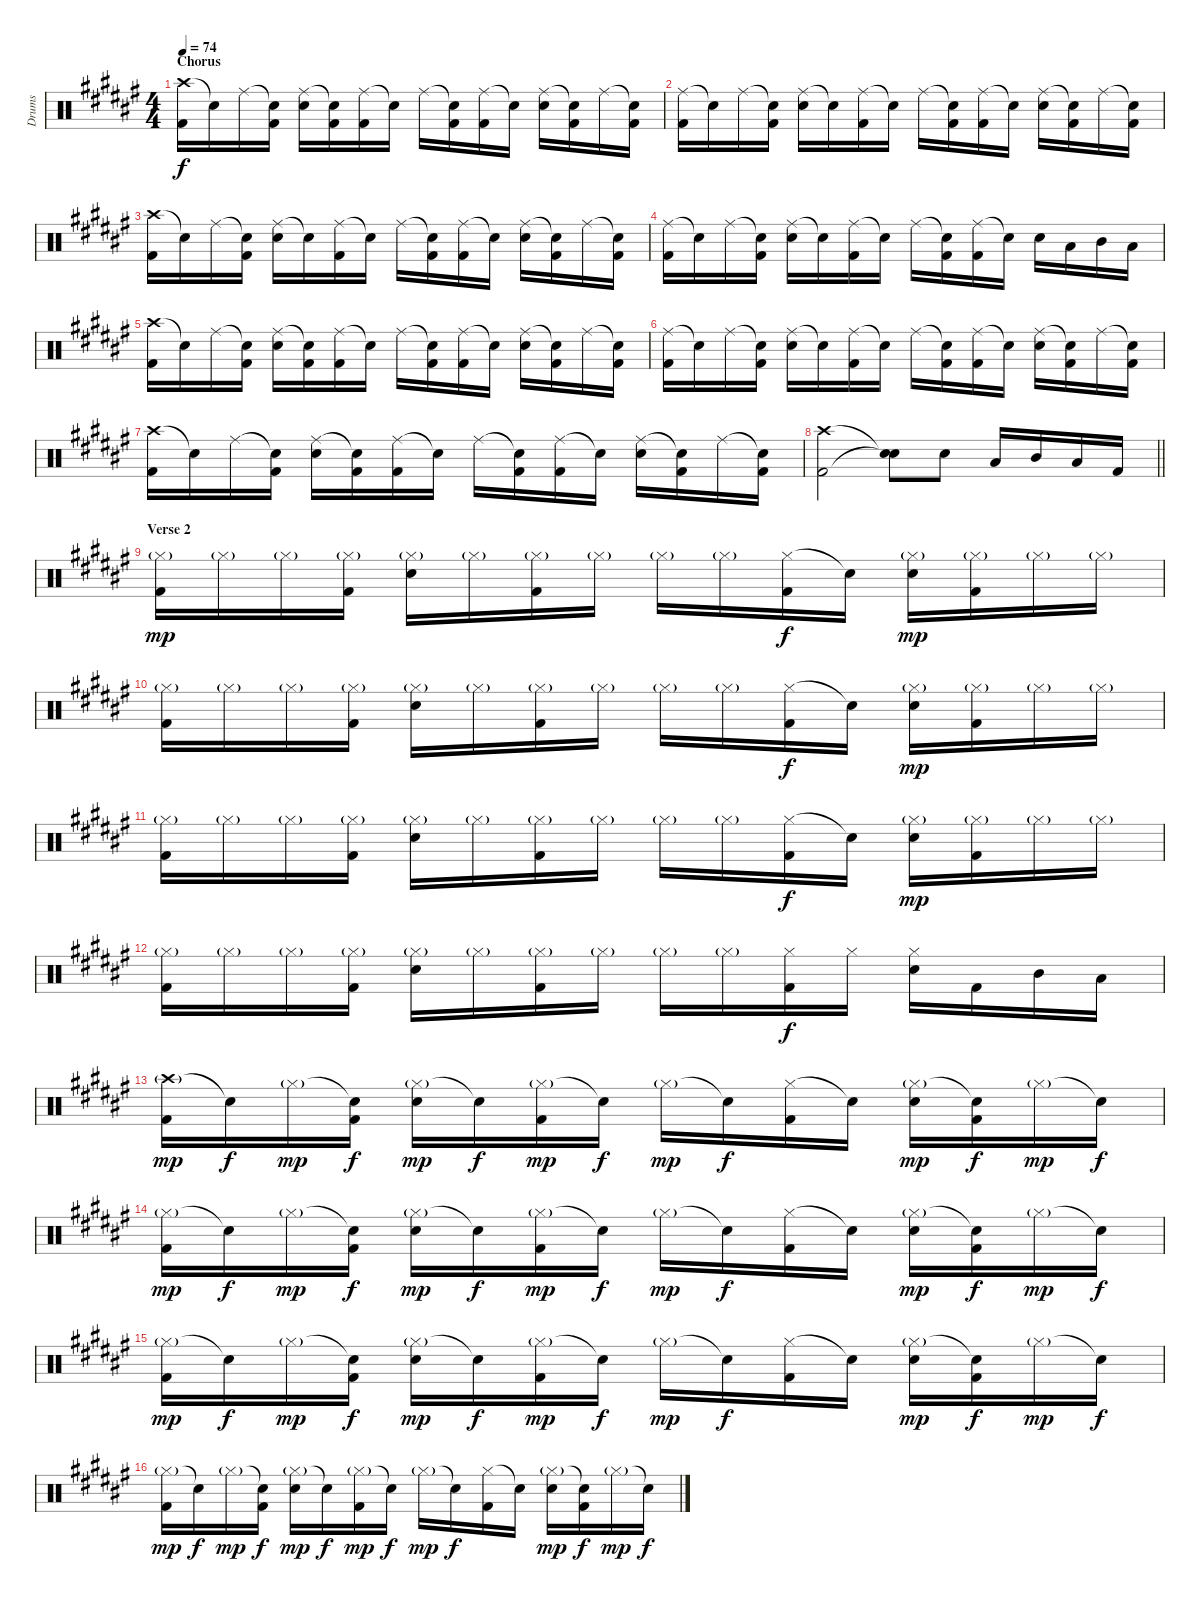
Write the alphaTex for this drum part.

\track ("Drums" "Drums") {instrument percussion}
\staff {score}
\articulation defaults
\ts (4 4)
\section ("" "Chorus")
\tempo 74
\clef neutral
\ks f#
("Crash high (hit)" "Kick (hit) 2").16{dy f} "Snare (hit)"{t}.16 "Ride (middle)".16 ("Snare (hit)"{t} "Kick (hit) 2").16 ("Ride (middle)" "Electric Snare (hit)").16 ("Snare (hit)"{t} "Kick (hit) 2").16 ("Ride (middle)" "Kick (hit) 2").16 "Snare (hit)"{t}.16 "Ride (middle)".16 ("Snare (hit)"{t} "Kick (hit) 2").16 ("Ride (middle)" "Kick (hit) 2").16 "Snare (hit)"{t}.16 ("Ride (middle)" "Electric Snare (hit)").16 ("Snare (hit)"{t} "Kick (hit) 2").16 "Ride (middle)".16 ("Snare (hit)"{t} "Kick (hit) 2").16 |
("Ride (middle)" "Kick (hit) 2").16 "Snare (hit)"{t}.16 "Ride (middle)".16 ("Snare (hit)"{t} "Kick (hit) 2").16 ("Ride (middle)" "Electric Snare (hit)").16 "Snare (hit)"{t}.16 ("Ride (middle)" "Kick (hit) 2").16 "Snare (hit)"{t}.16 "Ride (middle)".16 ("Snare (hit)"{t} "Kick (hit) 2").16 ("Ride (middle)" "Kick (hit) 2").16 "Snare (hit)"{t}.16 ("Ride (middle)" "Electric Snare (hit)").16 ("Snare (hit)"{t} "Kick (hit) 2").16 "Ride (middle)".16 ("Snare (hit)"{t} "Kick (hit) 2").16 |
("Crash high (hit)" "Kick (hit) 2").16 "Snare (hit)"{t}.16 "Ride (middle)".16 ("Snare (hit)"{t} "Kick (hit) 2").16 ("Ride (middle)" "Electric Snare (hit)").16 "Snare (hit)"{t}.16 ("Ride (middle)" "Kick (hit) 2").16 "Snare (hit)"{t}.16 "Ride (middle)".16 ("Snare (hit)"{t} "Kick (hit) 2").16 ("Ride (middle)" "Kick (hit) 2").16 "Snare (hit)"{t}.16 ("Ride (middle)" "Electric Snare (hit)").16 ("Snare (hit)"{t} "Kick (hit) 2").16 "Ride (middle)".16 ("Snare (hit)"{t} "Kick (hit) 2").16 |
("Ride (middle)" "Kick (hit) 2").16 "Snare (hit)"{t}.16 "Ride (middle)".16 ("Snare (hit)"{t} "Kick (hit) 2").16 ("Ride (middle)" "Electric Snare (hit)").16 "Snare (hit)"{t}.16 ("Ride (middle)" "Kick (hit) 2").16 "Snare (hit)"{t}.16 "Ride (middle)".16 ("Snare (hit)"{t} "Kick (hit) 2").16 ("Ride (middle)" "Kick (hit) 2").16 "Snare (hit)"{t}.16 "Electric Snare (hit)".16 "Low Tom (hit)".16 "Mid Tom (hit)".16 "Low Floor Tom (hit)".16 |
("Crash high (hit)" "Kick (hit) 2").16 "Snare (hit)"{t}.16 "Ride (middle)".16 ("Snare (hit)"{t} "Kick (hit) 2").16 ("Ride (middle)" "Electric Snare (hit)").16 ("Snare (hit)"{t} "Kick (hit) 2").16 ("Ride (middle)" "Kick (hit) 2").16 "Snare (hit)"{t}.16 "Ride (middle)".16 ("Snare (hit)"{t} "Kick (hit) 2").16 ("Ride (middle)" "Kick (hit) 2").16 "Snare (hit)"{t}.16 ("Ride (middle)" "Electric Snare (hit)").16 ("Snare (hit)"{t} "Kick (hit) 2").16 "Ride (middle)".16 ("Snare (hit)"{t} "Kick (hit) 2").16 |
("Ride (middle)" "Kick (hit) 2").16 "Snare (hit)"{t}.16 "Ride (middle)".16 ("Snare (hit)"{t} "Kick (hit) 2").16 ("Ride (middle)" "Electric Snare (hit)").16 "Snare (hit)"{t}.16 ("Ride (middle)" "Kick (hit) 2").16 "Snare (hit)"{t}.16 "Ride (middle)".16 ("Snare (hit)"{t} "Kick (hit) 2").16 ("Ride (middle)" "Kick (hit) 2").16 "Snare (hit)"{t}.16 ("Ride (middle)" "Electric Snare (hit)").16 ("Snare (hit)"{t} "Kick (hit) 2").16 "Ride (middle)".16 ("Snare (hit)"{t} "Kick (hit) 2").16 |
("Crash high (hit)" "Kick (hit) 2").16 "Snare (hit)"{t}.16 "Ride (middle)".16 ("Snare (hit)"{t} "Kick (hit) 2").16 ("Ride (middle)" "Electric Snare (hit)").16 ("Snare (hit)"{t} "Kick (hit) 2").16 ("Ride (middle)" "Kick (hit) 2").16 "Snare (hit)"{t}.16 "Ride (middle)".16 ("Snare (hit)"{t} "Kick (hit) 2").16 ("Ride (middle)" "Kick (hit) 2").16 "Snare (hit)"{t}.16 ("Ride (middle)" "Electric Snare (hit)").16 ("Snare (hit)"{t} "Kick (hit) 2").16 "Ride (middle)".16 ("Snare (hit)"{t} "Kick (hit) 2").16 |
\barLineRight lightlight
("Crash high (hit)" "Kick (hit) 2").2 ("Snare (hit)"{t} "Snare (hit)"{t}).8 "Electric Snare (hit)".8 "Low Tom (hit)".16 "Mid Tom (hit)".16 "Low Floor Tom (hit)".16 "Kick (hit) 2".16 |
\section ("" "Verse 2")
("Hi-Hat (closed)"{g} "Kick (hit) 2").16{dy mp} "Hi-Hat (closed)"{g}.16 "Hi-Hat (closed)"{g}.16 ("Hi-Hat (closed)"{g} "Kick (hit) 2").16 ("Hi-Hat (closed)"{g} "Electric Snare (hit)").16 "Hi-Hat (closed)"{g}.16 ("Hi-Hat (closed)"{g} "Kick (hit) 2").16 "Hi-Hat (closed)"{g}.16 "Hi-Hat (closed)"{g}.16 "Hi-Hat (closed)"{g}.16 ("Hi-Hat (closed)" "Kick (hit) 2").16{dy f} "Snare (hit)"{t}.16 ("Hi-Hat (closed)"{g} "Electric Snare (hit)").16{dy mp} ("Hi-Hat (closed)"{g} "Kick (hit) 2").16 "Hi-Hat (closed)"{g}.16 "Hi-Hat (closed)"{g}.16 |
("Hi-Hat (closed)"{g} "Kick (hit) 2").16 "Hi-Hat (closed)"{g}.16 "Hi-Hat (closed)"{g}.16 ("Hi-Hat (closed)"{g} "Kick (hit) 2").16 ("Hi-Hat (closed)"{g} "Electric Snare (hit)").16 "Hi-Hat (closed)"{g}.16 ("Hi-Hat (closed)"{g} "Kick (hit) 2").16 "Hi-Hat (closed)"{g}.16 "Hi-Hat (closed)"{g}.16 "Hi-Hat (closed)"{g}.16 ("Hi-Hat (closed)" "Kick (hit) 2").16{dy f} "Snare (hit)"{t}.16 ("Hi-Hat (closed)"{g} "Electric Snare (hit)").16{dy mp} ("Hi-Hat (closed)"{g} "Kick (hit) 2").16 "Hi-Hat (closed)"{g}.16 "Hi-Hat (closed)"{g}.16 |
("Hi-Hat (closed)"{g} "Kick (hit) 2").16 "Hi-Hat (closed)"{g}.16 "Hi-Hat (closed)"{g}.16 ("Hi-Hat (closed)"{g} "Kick (hit) 2").16 ("Hi-Hat (closed)"{g} "Electric Snare (hit)").16 "Hi-Hat (closed)"{g}.16 ("Hi-Hat (closed)"{g} "Kick (hit) 2").16 "Hi-Hat (closed)"{g}.16 "Hi-Hat (closed)"{g}.16 "Hi-Hat (closed)"{g}.16 ("Hi-Hat (closed)" "Kick (hit) 2").16{dy f} "Snare (hit)"{t}.16 ("Hi-Hat (closed)"{g} "Electric Snare (hit)").16{dy mp} ("Hi-Hat (closed)"{g} "Kick (hit) 2").16 "Hi-Hat (closed)"{g}.16 "Hi-Hat (closed)"{g}.16 |
("Hi-Hat (closed)"{g} "Kick (hit) 2").16 "Hi-Hat (closed)"{g}.16 "Hi-Hat (closed)"{g}.16 ("Hi-Hat (closed)"{g} "Kick (hit) 2").16 ("Hi-Hat (closed)"{g} "Electric Snare (hit)").16 "Hi-Hat (closed)"{g}.16 ("Hi-Hat (closed)"{g} "Kick (hit) 2").16 "Hi-Hat (closed)"{g}.16 "Hi-Hat (closed)"{g}.16 "Hi-Hat (closed)"{g}.16 ("Hi-Hat (closed)" "Kick (hit) 2").16{dy f} "Hi-Hat (closed)".16 ("Hi-Hat (closed)" "Electric Snare (hit)").16 "Kick (hit) 2".16 "Mid Tom (hit)".16 "Low Floor Tom (hit)".16 |
("Crash high (hit)"{g} "Kick (hit) 2").16{dy mp} "Snare (hit)"{t}.16{dy f} "Hi-Hat (closed)"{g}.16{dy mp} ("Snare (hit)"{t} "Kick (hit) 2").16{dy f} ("Hi-Hat (closed)"{g} "Electric Snare (hit)").16{dy mp} "Snare (hit)"{t}.16{dy f} ("Hi-Hat (closed)"{g} "Kick (hit) 2").16{dy mp} "Snare (hit)"{t}.16{dy f} "Hi-Hat (closed)"{g}.16{dy mp} "Snare (hit)"{t}.16{dy f} ("Hi-Hat (closed)" "Kick (hit) 2").16 "Snare (hit)"{t}.16 ("Hi-Hat (closed)"{g} "Electric Snare (hit)").16{dy mp} ("Snare (hit)"{t} "Kick (hit) 2").16{dy f} "Hi-Hat (closed)"{g}.16{dy mp} "Snare (hit)"{t}.16{dy f} |
("Hi-Hat (closed)"{g} "Kick (hit) 2").16{dy mp} "Snare (hit)"{t}.16{dy f} "Hi-Hat (closed)"{g}.16{dy mp} ("Snare (hit)"{t} "Kick (hit) 2").16{dy f} ("Hi-Hat (closed)"{g} "Electric Snare (hit)").16{dy mp} "Snare (hit)"{t}.16{dy f} ("Hi-Hat (closed)"{g} "Kick (hit) 2").16{dy mp} "Snare (hit)"{t}.16{dy f} "Hi-Hat (closed)"{g}.16{dy mp} "Snare (hit)"{t}.16{dy f} ("Hi-Hat (closed)" "Kick (hit) 2").16 "Snare (hit)"{t}.16 ("Hi-Hat (closed)"{g} "Electric Snare (hit)").16{dy mp} ("Snare (hit)"{t} "Kick (hit) 2").16{dy f} "Hi-Hat (closed)"{g}.16{dy mp} "Snare (hit)"{t}.16{dy f} |
("Hi-Hat (closed)"{g} "Kick (hit) 2").16{dy mp} "Snare (hit)"{t}.16{dy f} "Hi-Hat (closed)"{g}.16{dy mp} ("Snare (hit)"{t} "Kick (hit) 2").16{dy f} ("Hi-Hat (closed)"{g} "Electric Snare (hit)").16{dy mp} "Snare (hit)"{t}.16{dy f} ("Hi-Hat (closed)"{g} "Kick (hit) 2").16{dy mp} "Snare (hit)"{t}.16{dy f} "Hi-Hat (closed)"{g}.16{dy mp} "Snare (hit)"{t}.16{dy f} ("Hi-Hat (closed)" "Kick (hit) 2").16 "Snare (hit)"{t}.16 ("Hi-Hat (closed)"{g} "Electric Snare (hit)").16{dy mp} ("Snare (hit)"{t} "Kick (hit) 2").16{dy f} "Hi-Hat (closed)"{g}.16{dy mp} "Snare (hit)"{t}.16{dy f} |
("Hi-Hat (closed)"{g} "Kick (hit) 2").16{dy mp} "Snare (hit)"{t}.16{dy f} "Hi-Hat (closed)"{g}.16{dy mp} ("Snare (hit)"{t} "Kick (hit) 2").16{dy f} ("Hi-Hat (closed)"{g} "Electric Snare (hit)").16{dy mp} "Snare (hit)"{t}.16{dy f} ("Hi-Hat (closed)"{g} "Kick (hit) 2").16{dy mp} "Snare (hit)"{t}.16{dy f} "Hi-Hat (closed)"{g}.16{dy mp} "Snare (hit)"{t}.16{dy f} ("Hi-Hat (closed)" "Kick (hit) 2").16 "Snare (hit)"{t}.16 ("Hi-Hat (closed)"{g} "Electric Snare (hit)").16{dy mp} ("Snare (hit)"{t} "Kick (hit) 2").16{dy f} "Hi-Hat (closed)"{g}.16{dy mp} "Snare (hit)"{t}.16{dy f}
